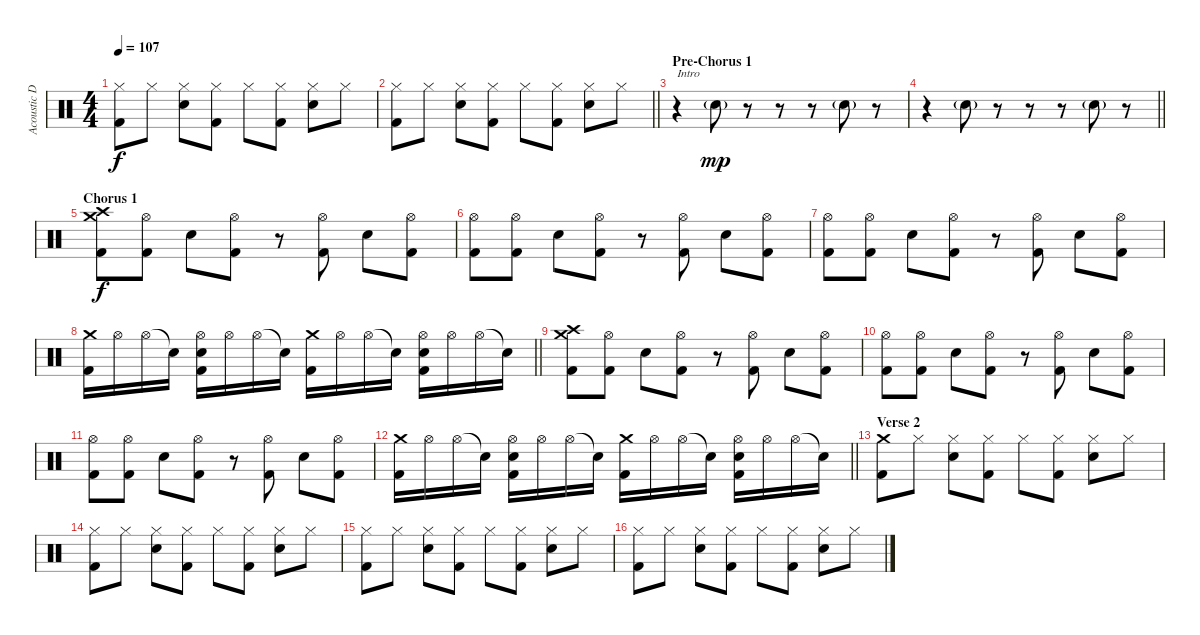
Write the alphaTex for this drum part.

\track ("Acoustic Drums" "Acoustic D") {instrument percussion}
\staff {score}
\articulation defaults
\ts (4 4)
\tempo 107
\clef neutral
\ks c
("Hi-Hat (closed)" "Kick (hit) 2").8{dy f} "Hi-Hat (closed)".8 ("Hi-Hat (closed)" "Snare (hit) 2").8 ("Hi-Hat (closed)" "Kick (hit) 2").8 "Hi-Hat (closed)".8 ("Hi-Hat (closed)" "Kick (hit) 2").8 ("Hi-Hat (closed)" "Snare (hit) 2").8 "Hi-Hat (closed)".8 |
\barLineRight lightlight
("Hi-Hat (closed)" "Kick (hit) 2").8 "Hi-Hat (closed)".8 ("Hi-Hat (closed)" "Snare (hit) 2").8 ("Hi-Hat (closed)" "Kick (hit) 2").8 "Hi-Hat (closed)".8 ("Hi-Hat (closed)" "Kick (hit) 2").8 ("Hi-Hat (closed)" "Snare (hit) 2").8 "Hi-Hat (closed)".8 |
\section ("" "Pre-Chorus 1")
r.4{txt "Intro"} "Snare (hit) 2"{g}.8{dy mp} r.8 r.8 r.8 "Snare (hit) 2"{g}.8 r.8 |
\barLineRight lightlight
r.4 "Snare (hit) 2"{g}.8 r.8 r.8 r.8 "Snare (hit) 2"{g}.8 r.8 |
\section ("" "Chorus 1")
("Crash medium (hit)" "Crash high (hit)" "Kick (hit) 2").8{dy f} ("Hi-Hat (open)" "Kick (hit) 2").8 "Snare (hit) 2".8 ("Hi-Hat (open)" "Kick (hit) 2").8 r.8 ("Hi-Hat (open)" "Kick (hit) 2").8 "Snare (hit) 2".8 ("Hi-Hat (open)" "Kick (hit) 2").8 |
("Hi-Hat (open)" "Kick (hit) 2").8 ("Hi-Hat (open)" "Kick (hit) 2").8 "Snare (hit) 2".8 ("Hi-Hat (open)" "Kick (hit) 2").8 r.8 ("Hi-Hat (open)" "Kick (hit) 2").8 "Snare (hit) 2".8 ("Hi-Hat (open)" "Kick (hit) 2").8 |
("Hi-Hat (open)" "Kick (hit) 2").8 ("Hi-Hat (open)" "Kick (hit) 2").8 "Snare (hit) 2".8 ("Hi-Hat (open)" "Kick (hit) 2").8 r.8 ("Hi-Hat (open)" "Kick (hit) 2").8 "Snare (hit) 2".8 ("Hi-Hat (open)" "Kick (hit) 2").8 |
\barLineRight lightlight
("Crash medium (hit)" "Kick (hit) 2").16 "Hi-Hat (open)".16 "Hi-Hat (open)".16 "Snare (hit)"{t}.16 ("Hi-Hat (open)" "Snare (hit) 2" "Kick (hit) 2").16 "Hi-Hat (open)".16 "Hi-Hat (open)".16 "Snare (hit)"{t}.16 ("Crash medium (hit)" "Kick (hit) 2").16 "Hi-Hat (open)".16 "Hi-Hat (open)".16 "Snare (hit)"{t}.16 ("Hi-Hat (open)" "Snare (hit) 2" "Kick (hit) 2").16 "Hi-Hat (open)".16 "Hi-Hat (open)".16 "Snare (hit)"{t}.16 |
("Crash medium (hit)" "Crash high (hit)" "Kick (hit) 2").8 ("Hi-Hat (open)" "Kick (hit) 2").8 "Snare (hit) 2".8 ("Hi-Hat (open)" "Kick (hit) 2").8 r.8 ("Hi-Hat (open)" "Kick (hit) 2").8 "Snare (hit) 2".8 ("Hi-Hat (open)" "Kick (hit) 2").8 |
("Hi-Hat (open)" "Kick (hit) 2").8 ("Hi-Hat (open)" "Kick (hit) 2").8 "Snare (hit) 2".8 ("Hi-Hat (open)" "Kick (hit) 2").8 r.8 ("Hi-Hat (open)" "Kick (hit) 2").8 "Snare (hit) 2".8 ("Hi-Hat (open)" "Kick (hit) 2").8 |
("Hi-Hat (open)" "Kick (hit) 2").8 ("Hi-Hat (open)" "Kick (hit) 2").8 "Snare (hit) 2".8 ("Hi-Hat (open)" "Kick (hit) 2").8 r.8 ("Hi-Hat (open)" "Kick (hit) 2").8 "Snare (hit) 2".8 ("Hi-Hat (open)" "Kick (hit) 2").8 |
\barLineRight lightlight
("Crash medium (hit)" "Kick (hit) 2").16 "Hi-Hat (open)".16 "Hi-Hat (open)".16 "Snare (hit)"{t}.16 ("Hi-Hat (open)" "Snare (hit) 2" "Kick (hit) 2").16 "Hi-Hat (open)".16 "Hi-Hat (open)".16 "Snare (hit)"{t}.16 ("Crash medium (hit)" "Kick (hit) 2").16 "Hi-Hat (open)".16 "Hi-Hat (open)".16 "Snare (hit)"{t}.16 ("Hi-Hat (open)" "Snare (hit) 2" "Kick (hit) 2").16 "Hi-Hat (open)".16 "Hi-Hat (open)".16 "Snare (hit)"{t}.16 |
\section ("" "Verse 2")
("Crash medium (hit)" "Kick (hit) 2").8 "Hi-Hat (closed)".8 ("Hi-Hat (closed)" "Snare (hit) 2").8 ("Hi-Hat (closed)" "Kick (hit) 2").8 "Hi-Hat (closed)".8 ("Hi-Hat (closed)" "Kick (hit) 2").8 ("Hi-Hat (closed)" "Snare (hit) 2").8 "Hi-Hat (closed)".8 |
("Hi-Hat (closed)" "Kick (hit) 2").8 "Hi-Hat (closed)".8 ("Hi-Hat (closed)" "Snare (hit) 2").8 ("Hi-Hat (closed)" "Kick (hit) 2").8 "Hi-Hat (closed)".8 ("Hi-Hat (closed)" "Kick (hit) 2").8 ("Hi-Hat (closed)" "Snare (hit) 2").8 "Hi-Hat (closed)".8 |
("Hi-Hat (closed)" "Kick (hit) 2").8 "Hi-Hat (closed)".8 ("Hi-Hat (closed)" "Snare (hit) 2").8 ("Hi-Hat (closed)" "Kick (hit) 2").8 "Hi-Hat (closed)".8 ("Hi-Hat (closed)" "Kick (hit) 2").8 ("Hi-Hat (closed)" "Snare (hit) 2").8 "Hi-Hat (closed)".8 |
("Hi-Hat (closed)" "Kick (hit) 2").8 "Hi-Hat (closed)".8 ("Hi-Hat (closed)" "Snare (hit) 2").8 ("Hi-Hat (closed)" "Kick (hit) 2").8 "Hi-Hat (closed)".8 ("Hi-Hat (closed)" "Kick (hit) 2").8 ("Hi-Hat (closed)" "Snare (hit) 2").8 "Hi-Hat (closed)".8
